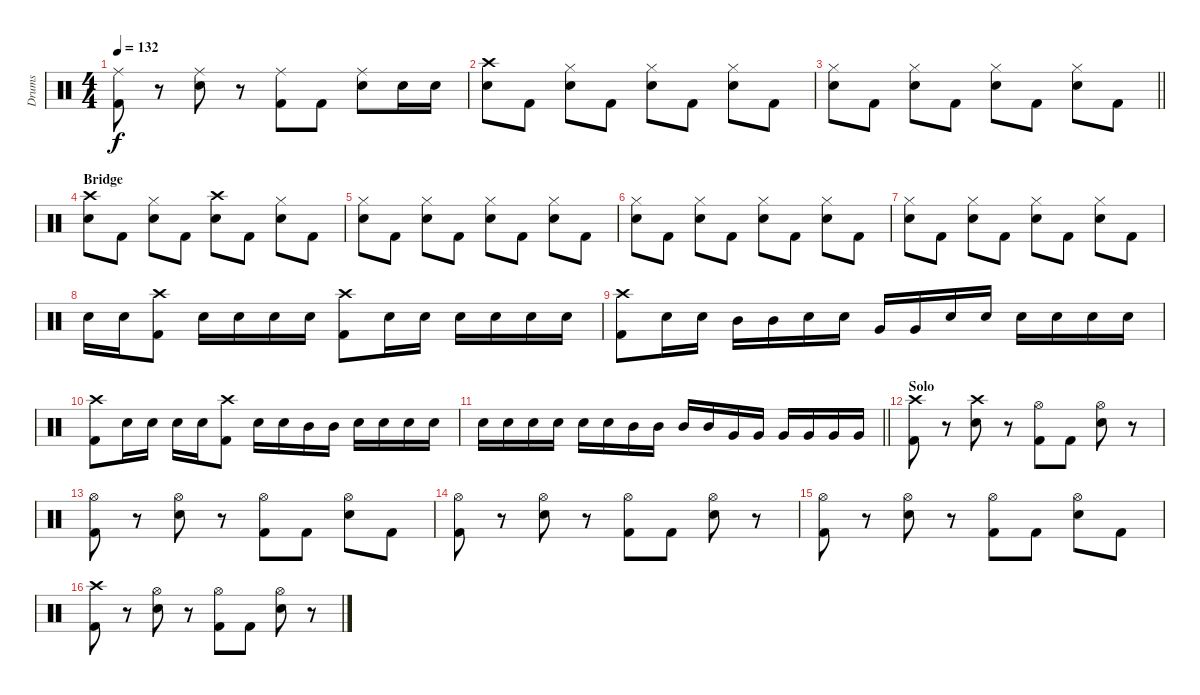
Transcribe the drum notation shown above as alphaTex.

\track ("Drums" "Drums") {instrument percussion}
\staff {score}
\articulation defaults
\ts (4 4)
\tempo 132
\clef neutral
\ks c
("Ride (middle)" "Kick (hit) 2").8{dy f} r.8 ("Ride (middle)" "Electric Snare (hit)").8 r.8 ("Ride (middle)" "Kick (hit) 2").8 "Kick (hit) 2".8 ("Ride (middle)" "Electric Snare (hit)").8 "Electric Snare (hit)".16 "Electric Snare (hit)".16 |
("Crash high (hit)" "Electric Snare (hit)").8 "Kick (hit) 2".8 ("Hi-Hat (closed)" "Electric Snare (hit)").8 "Kick (hit) 2".8 ("Hi-Hat (closed)" "Electric Snare (hit)").8 "Kick (hit) 2".8 ("Hi-Hat (closed)" "Electric Snare (hit)").8 "Kick (hit) 2".8 |
\barLineRight lightlight
("Hi-Hat (closed)" "Electric Snare (hit)").8 "Kick (hit) 2".8 ("Hi-Hat (closed)" "Electric Snare (hit)").8 "Kick (hit) 2".8 ("Hi-Hat (closed)" "Electric Snare (hit)").8 "Kick (hit) 2".8 ("Hi-Hat (closed)" "Electric Snare (hit)").8 "Kick (hit) 2".8 |
\section ("" "Bridge")
("Crash high (hit)" "Electric Snare (hit)").8 "Kick (hit) 2".8 ("Hi-Hat (closed)" "Electric Snare (hit)").8 "Kick (hit) 2".8 ("Crash high (hit)" "Electric Snare (hit)").8 "Kick (hit) 2".8 ("Hi-Hat (closed)" "Electric Snare (hit)").8 "Kick (hit) 2".8 |
("Hi-Hat (closed)" "Electric Snare (hit)").8 "Kick (hit) 2".8 ("Hi-Hat (closed)" "Electric Snare (hit)").8 "Kick (hit) 2".8 ("Hi-Hat (closed)" "Electric Snare (hit)").8 "Kick (hit) 2".8 ("Hi-Hat (closed)" "Electric Snare (hit)").8 "Kick (hit) 2".8 |
("Hi-Hat (closed)" "Electric Snare (hit)").8 "Kick (hit) 2".8 ("Hi-Hat (closed)" "Electric Snare (hit)").8 "Kick (hit) 2".8 ("Hi-Hat (closed)" "Electric Snare (hit)").8 "Kick (hit) 2".8 ("Hi-Hat (closed)" "Electric Snare (hit)").8 "Kick (hit) 2".8 |
("Hi-Hat (closed)" "Electric Snare (hit)").8 "Kick (hit) 2".8 ("Hi-Hat (closed)" "Electric Snare (hit)").8 "Kick (hit) 2".8 ("Hi-Hat (closed)" "Electric Snare (hit)").8 "Kick (hit) 2".8 ("Hi-Hat (closed)" "Electric Snare (hit)").8 "Kick (hit) 2".8 |
"Electric Snare (hit)".16 "Electric Snare (hit)".16 ("Crash high (hit)" "Kick (hit) 2").8 "Electric Snare (hit)".16 "Electric Snare (hit)".16 "Electric Snare (hit)".16 "Electric Snare (hit)".16 ("Crash high (hit)" "Kick (hit) 2").8 "Electric Snare (hit)".16 "Electric Snare (hit)".16 "Electric Snare (hit)".16 "Electric Snare (hit)".16 "Electric Snare (hit)".16 "Electric Snare (hit)".16 |
("Crash high (hit)" "Kick (hit) 2").8 "Electric Snare (hit)".16 "Electric Snare (hit)".16 "Mid Tom (hit)".16 "Mid Tom (hit)".16 "Electric Snare (hit)".16 "Electric Snare (hit)".16 "Very Low Tom (hit)".16 "Very Low Tom (hit)".16 "Electric Snare (hit)".16 "Electric Snare (hit)".16 "Electric Snare (hit)".16 "Electric Snare (hit)".16 "Electric Snare (hit)".16 "Electric Snare (hit)".16 |
("Crash high (hit)" "Kick (hit) 2").8 "Electric Snare (hit)".16 "Electric Snare (hit)".16 "Electric Snare (hit)".16 "Electric Snare (hit)".16 ("Crash high (hit)" "Kick (hit) 2").8 "Electric Snare (hit)".16 "Electric Snare (hit)".16 "Mid Tom (hit)".16 "Mid Tom (hit)".16 "Electric Snare (hit)".16 "Electric Snare (hit)".16 "Electric Snare (hit)".16 "Electric Snare (hit)".16 |
\barLineRight lightlight "Electric Snare (hit)".16 "Electric Snare (hit)".16 "Electric Snare (hit)".16 "Electric Snare (hit)".16 "Electric Snare (hit)".16 "Electric Snare (hit)".16 "Mid Tom (hit)".16 "Mid Tom (hit)".16 "Mid Tom (hit)".16 "Mid Tom (hit)".16 "Very Low Tom (hit)".16 "Very Low Tom (hit)".16 "Very Low Tom (hit)".16 "Very Low Tom (hit)".16 "Very Low Tom (hit)".16 "Very Low Tom (hit)".16
|
\section ("" "Solo")
("Crash high (hit)" "Kick (hit) 2").8 r.8 ("Crash high (hit)" "Electric Snare (hit)").8 r.8 ("Hi-Hat (open)" "Kick (hit) 2").8 "Kick (hit) 2".8 ("Hi-Hat (open)" "Electric Snare (hit)").8 r.8 |
("Hi-Hat (open)" "Kick (hit) 2").8 r.8 ("Hi-Hat (open)" "Electric Snare (hit)").8 r.8 ("Hi-Hat (open)" "Kick (hit) 2").8 "Kick (hit) 2".8 ("Hi-Hat (open)" "Electric Snare (hit)").8 "Kick (hit) 2".8 |
("Hi-Hat (open)" "Kick (hit) 2").8 r.8 ("Hi-Hat (open)" "Electric Snare (hit)").8 r.8 ("Hi-Hat (open)" "Kick (hit) 2").8 "Kick (hit) 2".8 ("Hi-Hat (open)" "Electric Snare (hit)").8 r.8 |
("Hi-Hat (open)" "Kick (hit) 2").8 r.8 ("Hi-Hat (open)" "Electric Snare (hit)").8 r.8 ("Hi-Hat (open)" "Kick (hit) 2").8 "Kick (hit) 2".8 ("Hi-Hat (open)" "Electric Snare (hit)").8 "Kick (hit) 2".8 |
("Crash high (hit)" "Kick (hit) 2").8 r.8 ("Hi-Hat (open)" "Electric Snare (hit)").8 r.8 ("Hi-Hat (open)" "Kick (hit) 2").8 "Kick (hit) 2".8 ("Hi-Hat (open)" "Electric Snare (hit)").8 r.8
